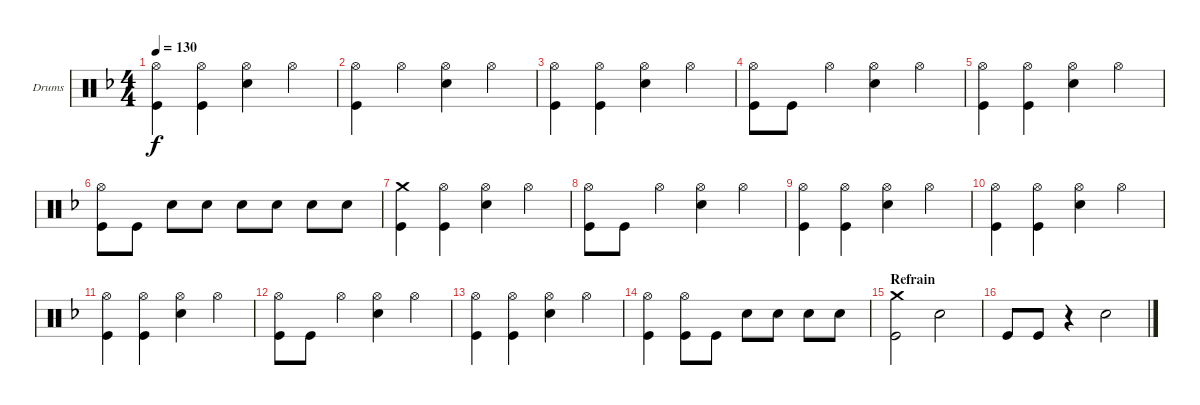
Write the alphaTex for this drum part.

\defaultSystemsLayout 4
\bracketExtendMode groupsimilarinstruments
\firstSystemTrackNameOrientation horizontal
\otherSystemsTrackNameOrientation horizontal
\track ("Drumkit" "Drums") {instrument percussion}
\staff {score}
\articulation defaults
\ts (4 4)
\tempo 130
\clef neutral
\ks dminor
("Kick (hit)" "Hi-Hat (open)").4{dy f} ("Kick (hit)" "Hi-Hat (open)").4 ("Hi-Hat (open)" "Snare (hit) 2").4 "Hi-Hat (open)".4 |
("Kick (hit)" "Hi-Hat (open)").4 "Hi-Hat (open)".4 ("Hi-Hat (open)" "Snare (hit) 2").4 "Hi-Hat (open)".4 |
("Kick (hit)" "Hi-Hat (open)").4 ("Kick (hit)" "Hi-Hat (open)").4 ("Hi-Hat (open)" "Snare (hit) 2").4 "Hi-Hat (open)".4 |
("Kick (hit)" "Hi-Hat (open)").8 "Kick (hit)".8 "Hi-Hat (open)".4 ("Hi-Hat (open)" "Snare (hit) 2").4 "Hi-Hat (open)".4 |
("Kick (hit)" "Hi-Hat (open)").4 ("Kick (hit)" "Hi-Hat (open)").4 ("Hi-Hat (open)" "Snare (hit) 2").4 "Hi-Hat (open)".4 |
("Kick (hit)" "Hi-Hat (open)").8 "Kick (hit)".8 "Snare (hit) 2".8 "Snare (hit) 2".8 "Snare (hit) 2".8 "Snare (hit) 2".8 "Snare (hit) 2".8 "Snare (hit) 2".8 |
("Kick (hit)" "Crash medium (hit)").4 ("Kick (hit)" "Hi-Hat (open)").4 ("Hi-Hat (open)" "Snare (hit) 2").4 "Hi-Hat (open)".4 |
("Kick (hit)" "Hi-Hat (open)").8 "Kick (hit)".8 "Hi-Hat (open)".4 ("Hi-Hat (open)" "Snare (hit) 2").4 "Hi-Hat (open)".4 |
("Kick (hit)" "Hi-Hat (open)").4 ("Kick (hit)" "Hi-Hat (open)").4 ("Hi-Hat (open)" "Snare (hit) 2").4 "Hi-Hat (open)".4 |
("Kick (hit)" "Hi-Hat (open)").4 ("Hi-Hat (open)" "Kick (hit)").4 ("Hi-Hat (open)" "Snare (hit) 2").4 "Hi-Hat (open)".4 |
("Kick (hit)" "Hi-Hat (open)").4 ("Kick (hit)" "Hi-Hat (open)").4 ("Hi-Hat (open)" "Snare (hit) 2").4 "Hi-Hat (open)".4 |
("Kick (hit)" "Hi-Hat (open)").8 "Kick (hit)".8 "Hi-Hat (open)".4 ("Hi-Hat (open)" "Snare (hit) 2").4 "Hi-Hat (open)".4 |
("Kick (hit)" "Hi-Hat (open)").4 ("Kick (hit)" "Hi-Hat (open)").4 ("Hi-Hat (open)" "Snare (hit) 2").4 "Hi-Hat (open)".4 |
("Kick (hit)" "Hi-Hat (open)").4 ("Kick (hit)" "Hi-Hat (open)").8 "Kick (hit)".8 "Snare (hit) 2".8 "Snare (hit) 2".8 "Snare (hit) 2".8 "Snare (hit) 2".8 |
\section ("" "Refrain")
("Crash medium (hit)" "Kick (hit)").2 "Snare (hit) 2".2 |
"Kick (hit)".8 "Kick (hit)".8 r.4 "Snare (hit) 2".2
